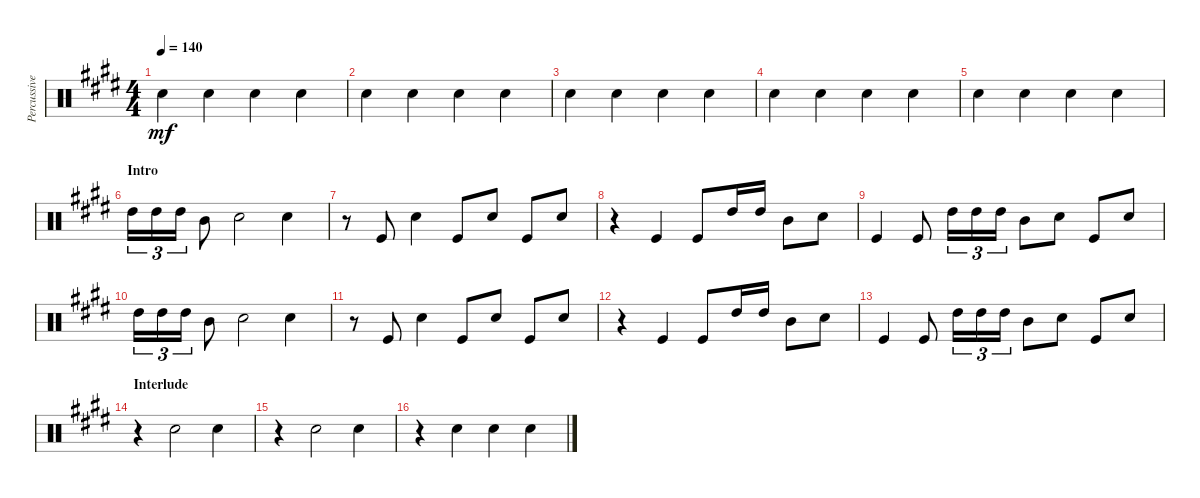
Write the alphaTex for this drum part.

\track ("Percussives" "Percussive") {instrument percussion}
\staff {score}
\articulation defaults
\ts (4 4)
\tempo 140
\clef neutral
\ks e "Snare (hit) 2".4{dy mf} "Snare (hit) 2".4 "Snare (hit) 2".4 "Snare (hit) 2".4
|
"Snare (hit) 2".4 "Snare (hit) 2".4 "Snare (hit) 2".4 "Snare (hit) 2".4 |
"Snare (hit) 2".4 "Snare (hit) 2".4 "Snare (hit) 2".4 "Snare (hit) 2".4 |
"Snare (hit) 2".4 "Snare (hit) 2".4 "Snare (hit) 2".4 "Snare (hit) 2".4 |
"Snare (hit) 2".4 "Snare (hit) 2".4 "Snare (hit) 2".4 "Snare (hit) 2".4 |
\section ("" "Intro")
"High Tom (hit)".16{tu (3 2)} "High Tom (hit)".16{tu (3 2)} "High Tom (hit)".16{tu (3 2)} "Mid Tom (hit)".8 "Snare (hit) 2".2 "Snare (hit) 2".4 |
r.8 "Kick (hit)".8 "Snare (hit) 2".4 "Kick (hit)".8 "Snare (hit) 2".8 "Kick (hit)".8 "Snare (hit) 2".8 |
r.4 "Kick (hit)".4 "Kick (hit)".8 "High Tom (hit)".16 "High Tom (hit)".16 "Mid Tom (hit)".8 "Snare (hit) 2".8 |
"Kick (hit)".4 "Kick (hit)".8 "High Tom (hit)".16{tu (3 2)} "High Tom (hit)".16{tu (3 2)} "High Tom (hit)".16{tu (3 2)} "Mid Tom (hit)".8 "Snare (hit) 2".8 "Kick (hit)".8 "Snare (hit) 2".8 |
"High Tom (hit)".16{tu (3 2)} "High Tom (hit)".16{tu (3 2)} "High Tom (hit)".16{tu (3 2)} "Mid Tom (hit)".8 "Snare (hit) 2".2 "Snare (hit) 2".4 |
r.8 "Kick (hit)".8 "Snare (hit) 2".4 "Kick (hit)".8 "Snare (hit) 2".8 "Kick (hit)".8 "Snare (hit) 2".8 |
r.4 "Kick (hit)".4 "Kick (hit)".8 "High Tom (hit)".16 "High Tom (hit)".16 "Mid Tom (hit)".8 "Snare (hit) 2".8 |
"Kick (hit)".4 "Kick (hit)".8 "High Tom (hit)".16{tu (3 2)} "High Tom (hit)".16{tu (3 2)} "High Tom (hit)".16{tu (3 2)} "Mid Tom (hit)".8 "Snare (hit) 2".8 "Kick (hit)".8 "Snare (hit) 2".8 |
\section ("" "Interlude")
r.4 "Snare (hit) 2".2 "Snare (hit) 2".4 |
r.4 "Snare (hit) 2".2 "Snare (hit) 2".4 |
r.4 "Snare (hit) 2".4 "Snare (hit) 2".4 "Snare (hit) 2".4
